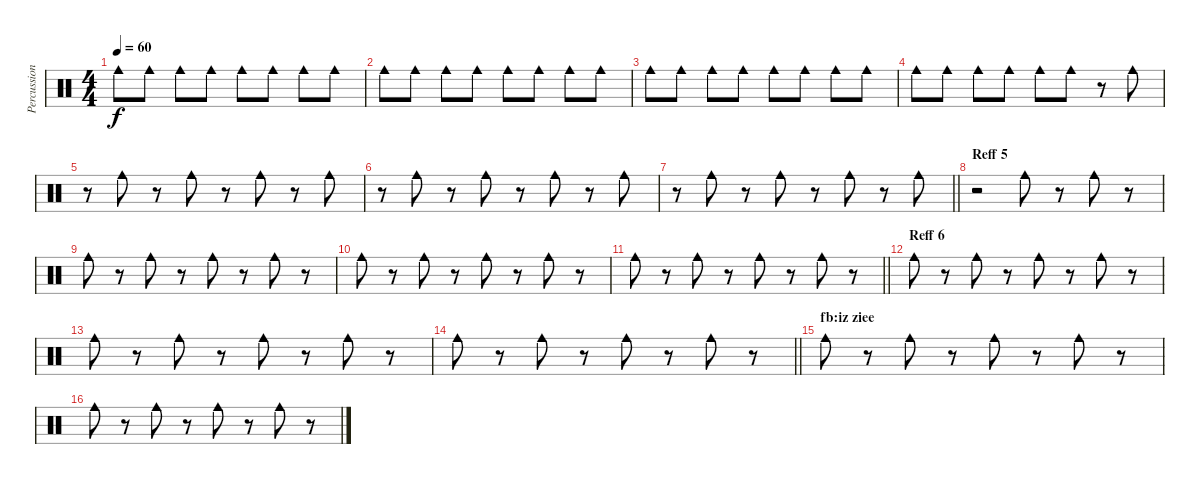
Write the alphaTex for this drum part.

\track ("Percussion 2" "Percussion") {instrument percussion}
\staff {score}
\articulation defaults
\ts (4 4)
\tempo 60
\clef neutral
\ks c "Cowbell medium (hit)".8{dy f balance 0} "Cowbell medium (hit)".8{balance 5} "Cowbell medium (hit)".8{balance 0} "Cowbell medium (hit)".8{balance 5} "Cowbell medium (hit)".8{balance 0} "Cowbell medium (hit)".8{balance 5} "Cowbell medium (hit)".8{balance 0} "Cowbell medium (hit)".8{balance 5}
|
"Cowbell medium (hit)".8{balance 0} "Cowbell medium (hit)".8{balance 5} "Cowbell medium (hit)".8{balance 0} "Cowbell medium (hit)".8{balance 5} "Cowbell medium (hit)".8{balance 0} "Cowbell medium (hit)".8{balance 5} "Cowbell medium (hit)".8{balance 0} "Cowbell medium (hit)".8{balance 5} |
"Cowbell medium (hit)".8{balance 0} "Cowbell medium (hit)".8{balance 5} "Cowbell medium (hit)".8{balance 0} "Cowbell medium (hit)".8{balance 5} "Cowbell medium (hit)".8{balance 0} "Cowbell medium (hit)".8{balance 5} "Cowbell medium (hit)".8{balance 0} "Cowbell medium (hit)".8{balance 5} |
"Cowbell medium (hit)".8{balance 0} "Cowbell medium (hit)".8{balance 5} "Cowbell medium (hit)".8{balance 0} "Cowbell medium (hit)".8{balance 5} "Cowbell medium (hit)".8{balance 5} "Cowbell medium (hit)".8 r.8 "Cowbell medium (hit)".8 |
r.8 "Cowbell medium (hit)".8 r.8 "Cowbell medium (hit)".8 r.8 "Cowbell medium (hit)".8 r.8 "Cowbell medium (hit)".8 |
r.8 "Cowbell medium (hit)".8 r.8 "Cowbell medium (hit)".8 r.8 "Cowbell medium (hit)".8 r.8 "Cowbell medium (hit)".8 |
\barLineRight lightlight
r.8 "Cowbell medium (hit)".8 r.8 "Cowbell medium (hit)".8 r.8 "Cowbell medium (hit)".8 r.8 "Cowbell medium (hit)".8 |
\section ("" "Reff 5")
r.2 "Cowbell medium (hit)".8 r.8 "Cowbell medium (hit)".8 r.8 |
"Cowbell medium (hit)".8 r.8 "Cowbell medium (hit)".8 r.8 "Cowbell medium (hit)".8 r.8 "Cowbell medium (hit)".8 r.8 |
"Cowbell medium (hit)".8 r.8 "Cowbell medium (hit)".8 r.8 "Cowbell medium (hit)".8 r.8 "Cowbell medium (hit)".8 r.8 |
\barLineRight lightlight "Cowbell medium (hit)".8
r.8 "Cowbell medium (hit)".8 r.8 "Cowbell medium (hit)".8 r.8 "Cowbell medium (hit)".8 r.8 |
\section ("" "Reff 6")
"Cowbell medium (hit)".8 r.8 "Cowbell medium (hit)".8 r.8 "Cowbell medium (hit)".8 r.8 "Cowbell medium (hit)".8 r.8 |
"Cowbell medium (hit)".8 r.8 "Cowbell medium (hit)".8 r.8 "Cowbell medium (hit)".8 r.8 "Cowbell medium (hit)".8 r.8 |
\barLineRight lightlight "Cowbell medium (hit)".8
r.8 "Cowbell medium (hit)".8 r.8 "Cowbell medium (hit)".8 r.8 "Cowbell medium (hit)".8 r.8 |
\section ("" "fb:iz ziee")
"Cowbell medium (hit)".8 r.8 "Cowbell medium (hit)".8 r.8 "Cowbell medium (hit)".8 r.8 "Cowbell medium (hit)".8 r.8 |
"Cowbell medium (hit)".8 r.8 "Cowbell medium (hit)".8 r.8 "Cowbell medium (hit)".8 r.8 "Cowbell medium (hit)".8 r.8
